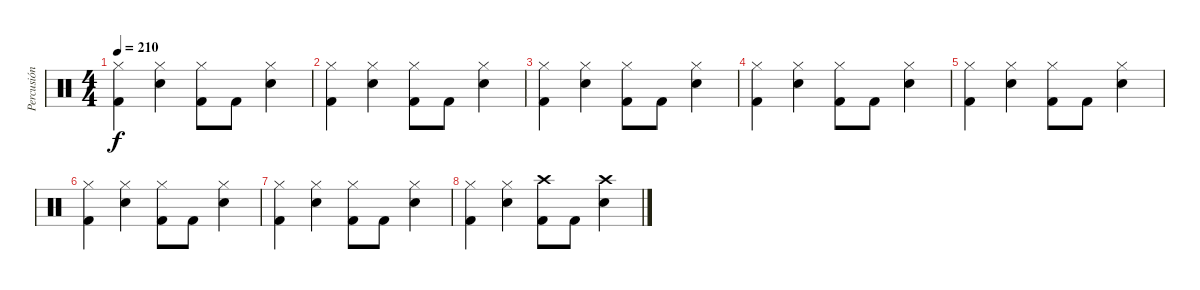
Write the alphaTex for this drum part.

\track ("Percusión" "Percusión") {instrument percussion}
\staff {score}
\articulation defaults
\ts (4 4)
\tempo 210
\clef neutral
\ks c
("Hi-Hat (closed)" "Kick (hit) 2").4{dy f} ("Hi-Hat (closed)" "Electric Snare (hit)").4 ("Hi-Hat (closed)" "Kick (hit) 2").8 "Kick (hit) 2".8 ("Hi-Hat (closed)" "Electric Snare (hit)").4 |
("Hi-Hat (closed)" "Kick (hit) 2").4 ("Hi-Hat (closed)" "Electric Snare (hit)").4 ("Hi-Hat (closed)" "Kick (hit) 2").8 "Kick (hit) 2".8 ("Hi-Hat (closed)" "Electric Snare (hit)").4 |
("Hi-Hat (closed)" "Kick (hit) 2").4 ("Hi-Hat (closed)" "Electric Snare (hit)").4 ("Hi-Hat (closed)" "Kick (hit) 2").8 "Kick (hit) 2".8 ("Hi-Hat (closed)" "Electric Snare (hit)").4 |
("Hi-Hat (closed)" "Kick (hit) 2").4 ("Hi-Hat (closed)" "Electric Snare (hit)").4 ("Hi-Hat (closed)" "Kick (hit) 2").8 "Kick (hit) 2".8 ("Hi-Hat (closed)" "Electric Snare (hit)").4 |
("Hi-Hat (closed)" "Kick (hit) 2").4 ("Hi-Hat (closed)" "Electric Snare (hit)").4 ("Hi-Hat (closed)" "Kick (hit) 2").8 "Kick (hit) 2".8 ("Hi-Hat (closed)" "Electric Snare (hit)").4 |
("Hi-Hat (closed)" "Kick (hit) 2").4 ("Hi-Hat (closed)" "Electric Snare (hit)").4 ("Hi-Hat (closed)" "Kick (hit) 2").8 "Kick (hit) 2".8 ("Hi-Hat (closed)" "Electric Snare (hit)").4 |
("Hi-Hat (closed)" "Kick (hit) 2").4 ("Hi-Hat (closed)" "Electric Snare (hit)").4 ("Hi-Hat (closed)" "Kick (hit) 2").8 "Kick (hit) 2".8 ("Hi-Hat (closed)" "Electric Snare (hit)").4 |
("Hi-Hat (closed)" "Kick (hit) 2").4 ("Hi-Hat (closed)" "Electric Snare (hit)").4 ("Crash high (hit)" "Kick (hit) 2").8 "Kick (hit) 2".8 ("Crash high (hit)" "Electric Snare (hit)").4
